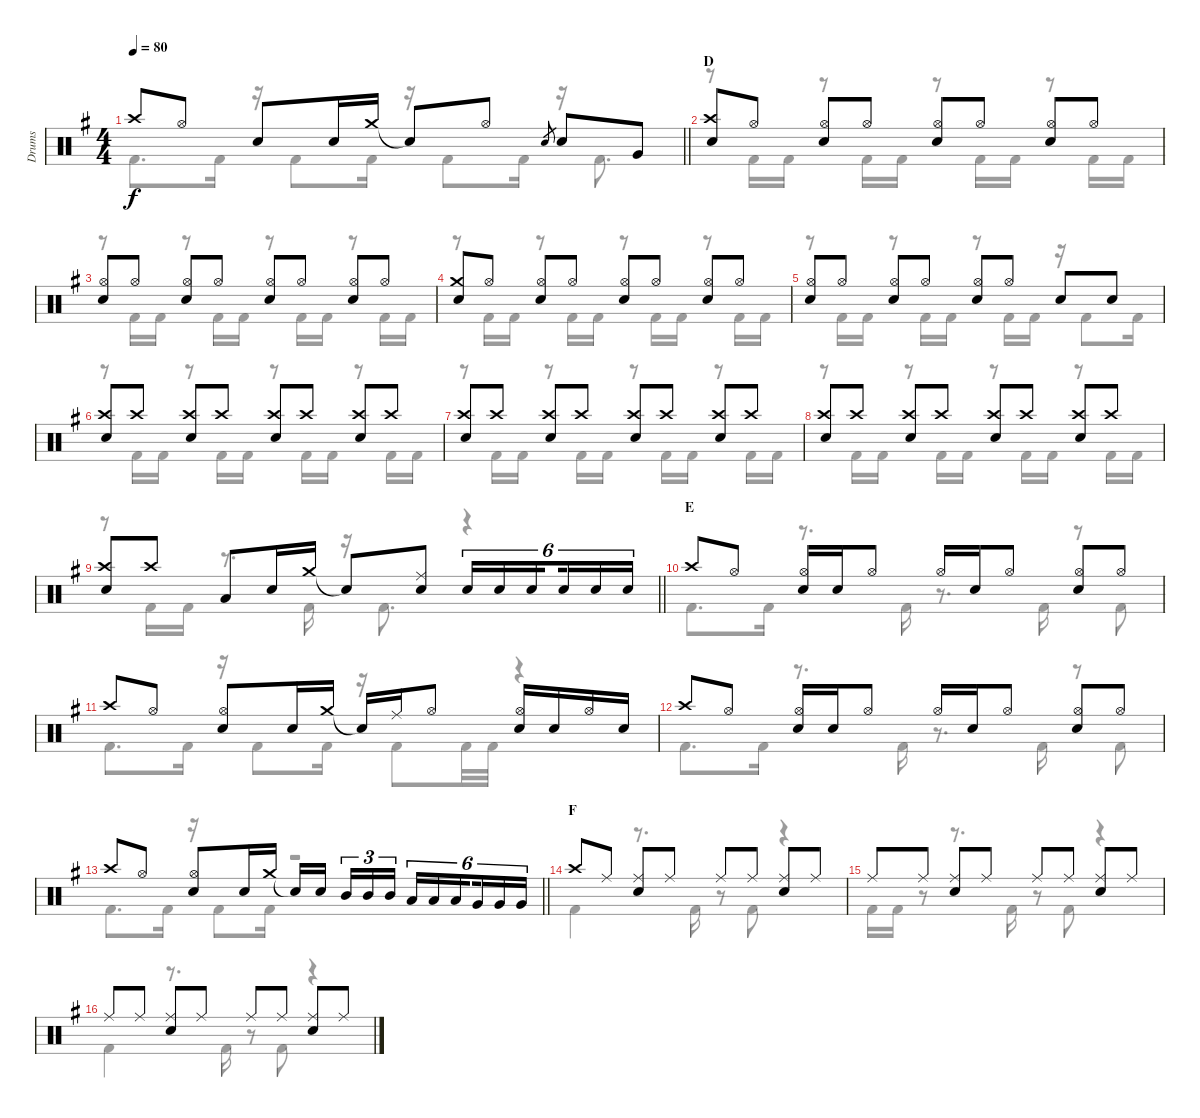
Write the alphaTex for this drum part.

\track ("Drums" "Drums") {instrument percussion}
\staff {score}
\articulation defaults
\voice
\ts (4 4)
\tempo 80
\clef neutral
\barLineRight lightlight
\ks g "Crash high (hit)".8{dy f} "Hi-Hat (open)".8 "Snare (hit) 2".8 "Snare (hit) 2".16 "Crash medium (hit)".16 "Snare (hit)"{t}.8 "Hi-Hat (open)".8 "Snare (hit) 2".8{gr} "Snare (hit) 2".8 "Very Low Tom (hit)".8
|
\section ("" "D")
("Crash high (hit)" "Snare (hit) 2").8 "Hi-Hat (open)".8 ("Hi-Hat (open)" "Snare (hit) 2").8 "Hi-Hat (open)".8 ("Hi-Hat (open)" "Snare (hit) 2").8 "Hi-Hat (open)".8 ("Hi-Hat (open)" "Snare (hit) 2").8 "Hi-Hat (open)".8 |
("Hi-Hat (open)" "Snare (hit) 2").8 "Hi-Hat (open)".8 ("Hi-Hat (open)" "Snare (hit) 2").8 "Hi-Hat (open)".8 ("Hi-Hat (open)" "Snare (hit) 2").8 "Hi-Hat (open)".8 ("Hi-Hat (open)" "Snare (hit) 2").8 "Hi-Hat (open)".8 |
("Crash medium (hit)" "Snare (hit) 2").8 "Hi-Hat (open)".8 ("Hi-Hat (open)" "Snare (hit) 2").8 "Hi-Hat (open)".8 ("Hi-Hat (open)" "Snare (hit) 2").8 "Hi-Hat (open)".8 ("Hi-Hat (open)" "Snare (hit) 2").8 "Hi-Hat (open)".8 |
("Hi-Hat (open)" "Snare (hit) 2").8 "Hi-Hat (open)".8 ("Hi-Hat (open)" "Snare (hit) 2").8 "Hi-Hat (open)".8 ("Hi-Hat (open)" "Snare (hit) 2").8 "Hi-Hat (open)".8 "Snare (hit) 2".8 "Snare (hit) 2".8 |
("Crash high (hit)" "Snare (hit) 2").8 "Crash high (hit)".8 ("Crash high (hit)" "Snare (hit) 2").8 "Crash high (hit)".8 ("Crash high (hit)" "Snare (hit) 2").8 "Crash high (hit)".8 ("Crash high (hit)" "Snare (hit) 2").8 "Crash high (hit)".8 |
("Crash high (hit)" "Snare (hit) 2").8 "Crash high (hit)".8 ("Crash high (hit)" "Snare (hit) 2").8 "Crash high (hit)".8 ("Crash high (hit)" "Snare (hit) 2").8 "Crash high (hit)".8 ("Crash high (hit)" "Snare (hit) 2").8 "Crash high (hit)".8 |
("Crash high (hit)" "Snare (hit) 2").8 "Crash high (hit)".8 ("Crash high (hit)" "Snare (hit) 2").8 "Crash high (hit)".8 ("Crash high (hit)" "Snare (hit) 2").8 "Crash high (hit)".8 ("Crash high (hit)" "Snare (hit) 2").8 "Crash high (hit)".8 |
\barLineRight lightlight
("Crash high (hit)" "Snare (hit) 2").8 "Crash high (hit)".8 "Low Tom (hit)".8 "Snare (hit) 2".16 "Crash medium (hit)".16 "Snare (hit)"{t}.8 ("Ride (middle)" "Snare (hit) 2").8 "Snare (hit) 2".16{tu (6 4)} "Snare (hit) 2".16{tu (6 4)} "Snare (hit) 2".16{tu (6 4) beam splitsecondary} "Snare (hit) 2".16{tu (6 4)} "Snare (hit) 2".16{tu (6 4)} "Snare (hit) 2".16{tu (6 4)} |
\section ("" "E")
"Crash high (hit)".8 "Hi-Hat (open)".8 ("Hi-Hat (open)" "Snare (hit) 2").16 "Snare (hit) 2".16 "Hi-Hat (open)".8 "Hi-Hat (open)".16 "Snare (hit) 2".16 "Hi-Hat (open)".8 ("Hi-Hat (open)" "Snare (hit) 2").8 "Hi-Hat (open)".8 |
"Crash high (hit)".8 "Hi-Hat (open)".8 ("Hi-Hat (open)" "Snare (hit) 2").8 "Snare (hit) 2".16 "Crash medium (hit)".16 "Snare (hit)"{t}.16 "Ride (middle)".16 "Hi-Hat (open)".8 ("Hi-Hat (open)" "Snare (hit) 2").16 "Snare (hit) 2".16 "Hi-Hat (open)".16 "Snare (hit) 2".16 |
"Crash high (hit)".8 "Hi-Hat (open)".8 ("Hi-Hat (open)" "Snare (hit) 2").16 "Snare (hit) 2".16 "Hi-Hat (open)".8 "Hi-Hat (open)".16 "Snare (hit) 2".16 "Hi-Hat (open)".8 ("Hi-Hat (open)" "Snare (hit) 2").8 "Hi-Hat (open)".8 |
\barLineRight lightlight "Crash high (hit)".8 "Hi-Hat (open)".8
("Hi-Hat (open)" "Snare (hit) 2").8 "Snare (hit) 2".16 "Crash medium (hit)".16 "Snare (hit)"{t}.16 "Snare (hit) 2".16{beam splitsecondary} "Mid Tom (hit)".16{tu (3 2)} "Mid Tom (hit)".16{tu (3 2)} "Mid Tom (hit)".16{tu (3 2)} "Low Tom (hit)".16{tu (6 4)} "Low Tom (hit)".16{tu (6 4)} "Low Tom (hit)".16{tu (6 4) beam splitsecondary} "Very Low Tom (hit)".16{tu (6 4)} "Very Low Tom (hit)".16{tu (6 4)} "Very Low Tom (hit)".16{tu (6 4)} |
\section ("" "F")
"Crash high (hit)".8 "Ride (middle)".8 ("Ride (middle)" "Snare (hit) 2").8 "Ride (middle)".8 "Ride (middle)".8 "Ride (middle)".8 ("Ride (middle)" "Snare (hit) 2").8 "Ride (middle)".8 |
"Ride (middle)".8 "Ride (middle)".8 ("Ride (middle)" "Snare (hit) 2").8 "Ride (middle)".8 "Ride (middle)".8 "Ride (middle)".8 ("Ride (middle)" "Snare (hit) 2").8 "Ride (middle)".8 |
"Ride (middle)".8 "Ride (middle)".8 ("Ride (middle)" "Snare (hit) 2").8 "Ride (middle)".8 "Ride (middle)".8 "Ride (middle)".8 ("Ride (middle)" "Snare (hit) 2").8 "Ride (middle)".8
\voice
\clef neutral
\ottava regular
\simile none
\barLineRight lightlight
\ks g "Kick (hit) 2".8{d dy f} "Kick (hit) 2".16
r.16 "Kick (hit) 2".8 "Kick (hit) 2".16 r.16 "Kick (hit) 2".8 "Kick (hit) 2".16 r.16 "Kick (hit) 2".8{d} |
r.8 "Kick (hit) 2".16 "Kick (hit) 2".16 r.8 "Kick (hit) 2".16 "Kick (hit) 2".16 r.8 "Kick (hit) 2".16 "Kick (hit) 2".16 r.8 "Kick (hit) 2".16 "Kick (hit) 2".16 |
r.8 "Kick (hit) 2".16 "Kick (hit) 2".16 r.8 "Kick (hit) 2".16 "Kick (hit) 2".16 r.8 "Kick (hit) 2".16 "Kick (hit) 2".16 r.8 "Kick (hit) 2".16 "Kick (hit) 2".16 |
r.8 "Kick (hit) 2".16 "Kick (hit) 2".16 r.8 "Kick (hit) 2".16 "Kick (hit) 2".16 r.8 "Kick (hit) 2".16 "Kick (hit) 2".16 r.8 "Kick (hit) 2".16 "Kick (hit) 2".16 |
r.8 "Kick (hit) 2".16 "Kick (hit) 2".16 r.8 "Kick (hit) 2".16 "Kick (hit) 2".16 r.8 "Kick (hit) 2".16 "Kick (hit) 2".16 r.16 "Kick (hit) 2".8 "Kick (hit) 2".16 |
r.8 "Kick (hit) 2".16 "Kick (hit) 2".16 r.8 "Kick (hit) 2".16 "Kick (hit) 2".16 r.8 "Kick (hit) 2".16 "Kick (hit) 2".16 r.8 "Kick (hit) 2".16 "Kick (hit) 2".16 |
r.8 "Kick (hit) 2".16 "Kick (hit) 2".16 r.8 "Kick (hit) 2".16 "Kick (hit) 2".16 r.8 "Kick (hit) 2".16 "Kick (hit) 2".16 r.8 "Kick (hit) 2".16 "Kick (hit) 2".16 |
r.8 "Kick (hit) 2".16 "Kick (hit) 2".16 r.8 "Kick (hit) 2".16 "Kick (hit) 2".16 r.8 "Kick (hit) 2".16 "Kick (hit) 2".16 r.8 "Kick (hit) 2".16 "Kick (hit) 2".16 |
\barLineRight lightlight
r.8 "Kick (hit) 2".16 "Kick (hit) 2".16 r.8{d} "Kick (hit) 2".16 r.16 "Kick (hit) 2".8{d} r.4 |
"Kick (hit) 2".8{d} "Kick (hit) 2".16 r.8{d} "Kick (hit) 2".16 r.8{d} "Kick (hit) 2".16 r.8 "Kick (hit) 2".8 |
"Kick (hit) 2".8{d} "Kick (hit) 2".16 r.16 "Kick (hit) 2".8 "Kick (hit) 2".16 r.16 "Kick (hit) 2".8 "Kick (hit) 2".32 "Kick (hit) 2".32 r.4 |
"Kick (hit) 2".8{d} "Kick (hit) 2".16 r.8{d} "Kick (hit) 2".16 r.8{d} "Kick (hit) 2".16 r.8 "Kick (hit) 2".8 |
\barLineRight lightlight "Kick (hit) 2".8{d} "Kick (hit) 2".16
r.16 "Kick (hit) 2".8 "Kick (hit) 2".16 r.2 |
"Kick (hit) 2".4 r.8{d} "Kick (hit) 2".16 r.8 "Kick (hit) 2".8 r.4 |
"Kick (hit) 2".16 "Kick (hit) 2".16 r.8 r.8{d} "Kick (hit) 2".16 r.8 "Kick (hit) 2".8 r.4 |
"Kick (hit) 2".4 r.8{d} "Kick (hit) 2".16 r.8 "Kick (hit) 2".8 r.4
